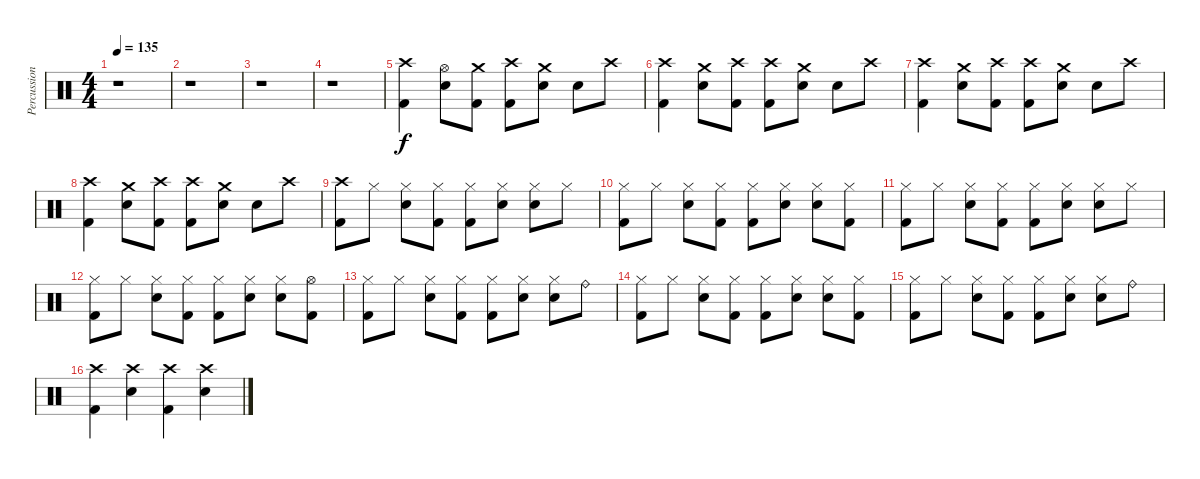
\track ("Percussion" "Percussion") {instrument percussion}
\staff {score}
\articulation defaults
\ts (4 4)
\tempo 135
\clef neutral
\ks c
r.1{dy f} |
r.1 |
r.1 |
r.1 |
("Crash high (hit)" "Kick (hit) 2").4 ("Hi-Hat (open)" "Snare (hit) 2").8 ("Crash medium (hit)" "Kick (hit) 2").8 ("Crash high (hit)" "Kick (hit) 2").8 ("Crash medium (hit)" "Snare (hit) 2").8 "Snare (hit) 2".8 "Crash high (hit)".8 |
("Crash high (hit)" "Kick (hit) 2").4 ("Crash medium (hit)" "Snare (hit) 2").8 ("Crash high (hit)" "Kick (hit) 2").8 ("Crash high (hit)" "Kick (hit) 2").8 ("Crash medium (hit)" "Snare (hit) 2").8 "Snare (hit) 2".8 "Crash high (hit)".8 |
("Crash high (hit)" "Kick (hit) 2").4 ("Crash medium (hit)" "Snare (hit) 2").8 ("Crash high (hit)" "Kick (hit) 2").8 ("Crash high (hit)" "Kick (hit) 2").8 ("Crash medium (hit)" "Snare (hit) 2").8 "Snare (hit) 2".8 "Crash high (hit)".8 |
("Crash high (hit)" "Kick (hit) 2").4 ("Crash medium (hit)" "Snare (hit) 2").8 ("Crash high (hit)" "Kick (hit) 2").8 ("Crash high (hit)" "Kick (hit) 2").8 ("Crash medium (hit)" "Snare (hit) 2").8 "Snare (hit) 2".8 "Crash high (hit)".8 |
("Crash high (hit)" "Kick (hit) 2").8 "Hi-Hat (closed)".8 ("Hi-Hat (closed)" "Snare (hit) 2").8 ("Hi-Hat (closed)" "Kick (hit) 2").8 ("Hi-Hat (closed)" "Kick (hit) 2").8 ("Hi-Hat (closed)" "Snare (hit) 2").8 ("Hi-Hat (closed)" "Snare (hit) 2").8 "Hi-Hat (closed)".8 |
("Hi-Hat (closed)" "Kick (hit) 2").8 "Hi-Hat (closed)".8 ("Hi-Hat (closed)" "Snare (hit) 2").8 ("Hi-Hat (closed)" "Kick (hit) 2").8 ("Hi-Hat (closed)" "Kick (hit) 2").8 ("Hi-Hat (closed)" "Snare (hit) 2").8 ("Hi-Hat (closed)" "Snare (hit) 2").8 ("Hi-Hat (closed)" "Kick (hit) 2").8 |
("Hi-Hat (closed)" "Kick (hit) 2").8 "Hi-Hat (closed)".8 ("Hi-Hat (closed)" "Snare (hit) 2").8 ("Hi-Hat (closed)" "Kick (hit) 2").8 ("Hi-Hat (closed)" "Kick (hit) 2").8 ("Hi-Hat (closed)" "Snare (hit) 2").8 ("Hi-Hat (closed)" "Snare (hit) 2").8 "Hi-Hat (closed)".8 |
("Hi-Hat (closed)" "Kick (hit) 2").8 "Hi-Hat (closed)".8 ("Hi-Hat (closed)" "Snare (hit) 2").8 ("Hi-Hat (closed)" "Kick (hit) 2").8 ("Hi-Hat (closed)" "Kick (hit) 2").8 ("Hi-Hat (closed)" "Snare (hit) 2").8 ("Hi-Hat (closed)" "Snare (hit) 2").8 ("Hi-Hat (open)" "Kick (hit) 2").8 |
("Hi-Hat (closed)" "Kick (hit) 2").8 "Hi-Hat (closed)".8 ("Hi-Hat (closed)" "Snare (hit) 2").8 ("Hi-Hat (closed)" "Kick (hit) 2").8 ("Hi-Hat (closed)" "Kick (hit) 2").8 ("Hi-Hat (closed)" "Snare (hit) 2").8 ("Hi-Hat (closed)" "Snare (hit) 2").8 "Ride (bell)".8 |
("Hi-Hat (closed)" "Kick (hit) 2").8 "Hi-Hat (closed)".8 ("Hi-Hat (closed)" "Snare (hit) 2").8 ("Hi-Hat (closed)" "Kick (hit) 2").8 ("Hi-Hat (closed)" "Kick (hit) 2").8 ("Hi-Hat (closed)" "Snare (hit) 2").8 ("Hi-Hat (closed)" "Snare (hit) 2").8 ("Hi-Hat (closed)" "Kick (hit) 2").8 |
("Hi-Hat (closed)" "Kick (hit) 2").8 "Hi-Hat (closed)".8 ("Hi-Hat (closed)" "Snare (hit) 2").8 ("Hi-Hat (closed)" "Kick (hit) 2").8 ("Hi-Hat (closed)" "Kick (hit) 2").8 ("Hi-Hat (closed)" "Snare (hit) 2").8 ("Hi-Hat (closed)" "Snare (hit) 2").8 "Ride (bell)".8 |
("Crash high (hit)" "Kick (hit) 2").4 ("Crash high (hit)" "Snare (hit) 2").4 ("Crash high (hit)" "Kick (hit) 2").4 ("Crash high (hit)" "Snare (hit) 2").4
